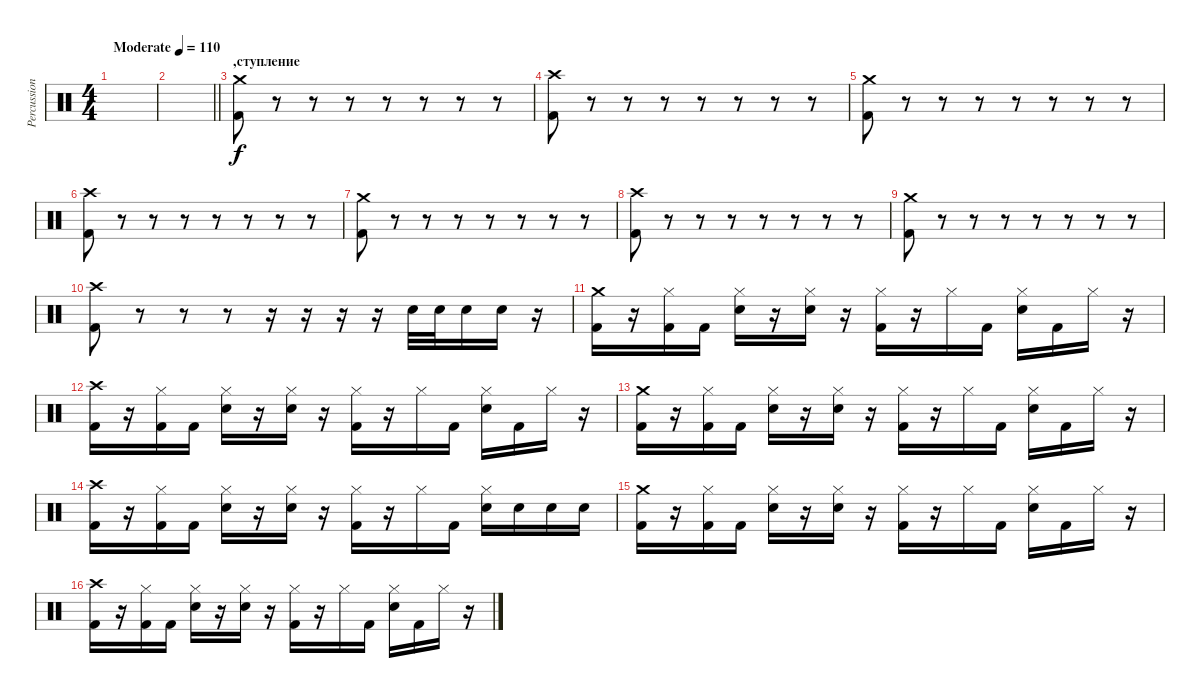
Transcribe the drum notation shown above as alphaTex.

\track ("Percussion" "Percussion") {instrument percussion}
\staff {score}
\articulation defaults
\ts (4 4)
\tempo (110 "Moderate")
\clef neutral
\ks c
|
\barLineRight lightlight
|
\section ("" "‚ступление")
("Crash medium (hit)" "Kick (hit) 2").8 r.8 r.8 r.8 r.8 r.8 r.8 r.8 |
("Crash high (hit)" "Kick (hit) 2").8 r.8 r.8 r.8 r.8 r.8 r.8 r.8 |
("Crash medium (hit)" "Kick (hit) 2").8 r.8 r.8 r.8 r.8 r.8 r.8 r.8 |
("Crash high (hit)" "Kick (hit) 2").8 r.8 r.8 r.8 r.8 r.8 r.8 r.8 |
("Crash medium (hit)" "Kick (hit) 2").8 r.8 r.8 r.8 r.8 r.8 r.8 r.8 |
("Crash high (hit)" "Kick (hit) 2").8 r.8 r.8 r.8 r.8 r.8 r.8 r.8 |
("Crash medium (hit)" "Kick (hit) 2").8 r.8 r.8 r.8 r.8 r.8 r.8 r.8 |
("Crash high (hit)" "Kick (hit) 2").8 r.8 r.8 r.8 r.16 r.16 r.16 r.16 "Electric Snare (hit)".32 "Electric Snare (hit)".32 "Electric Snare (hit)".16 "Electric Snare (hit)".16 r.16 |
("Crash medium (hit)" "Kick (hit) 2").16 r.16 ("Hi-Hat (closed)" "Kick (hit) 2").16 "Kick (hit) 2".16 ("Hi-Hat (closed)" "Electric Snare (hit)").16 r.16 ("Hi-Hat (closed)" "Electric Snare (hit)").16 r.16 ("Hi-Hat (closed)" "Kick (hit) 2").16 r.16 "Hi-Hat (closed)".16 "Kick (hit) 2".16 ("Hi-Hat (closed)" "Electric Snare (hit)").16 "Kick (hit) 2".16 "Hi-Hat (closed)".16 r.16 |
("Crash high (hit)" "Kick (hit) 2").16 r.16 ("Hi-Hat (closed)" "Kick (hit) 2").16 "Kick (hit) 2".16 ("Hi-Hat (closed)" "Electric Snare (hit)").16 r.16 ("Hi-Hat (closed)" "Electric Snare (hit)").16 r.16 ("Hi-Hat (closed)" "Kick (hit) 2").16 r.16 "Hi-Hat (closed)".16 "Kick (hit) 2".16 ("Hi-Hat (closed)" "Electric Snare (hit)").16 "Kick (hit) 2".16 "Hi-Hat (closed)".16 r.16 |
("Crash medium (hit)" "Kick (hit) 2").16 r.16 ("Hi-Hat (closed)" "Kick (hit) 2").16 "Kick (hit) 2".16 ("Hi-Hat (closed)" "Electric Snare (hit)").16 r.16 ("Hi-Hat (closed)" "Electric Snare (hit)").16 r.16 ("Hi-Hat (closed)" "Kick (hit) 2").16 r.16 "Hi-Hat (closed)".16 "Kick (hit) 2".16 ("Hi-Hat (closed)" "Electric Snare (hit)").16 "Kick (hit) 2".16 "Hi-Hat (closed)".16 r.16 |
("Crash high (hit)" "Kick (hit) 2").16 r.16 ("Hi-Hat (closed)" "Kick (hit) 2").16 "Kick (hit) 2".16 ("Hi-Hat (closed)" "Electric Snare (hit)").16 r.16 ("Hi-Hat (closed)" "Electric Snare (hit)").16 r.16 ("Hi-Hat (closed)" "Kick (hit) 2").16 r.16 "Hi-Hat (closed)".16 "Kick (hit) 2".16 ("Hi-Hat (closed)" "Electric Snare (hit)").16 "Electric Snare (hit)".16 "Electric Snare (hit)".16 "Electric Snare (hit)".16 |
("Crash medium (hit)" "Kick (hit) 2").16 r.16 ("Hi-Hat (closed)" "Kick (hit) 2").16 "Kick (hit) 2".16 ("Hi-Hat (closed)" "Electric Snare (hit)").16 r.16 ("Hi-Hat (closed)" "Electric Snare (hit)").16 r.16 ("Hi-Hat (closed)" "Kick (hit) 2").16 r.16 "Hi-Hat (closed)".16 "Kick (hit) 2".16 ("Hi-Hat (closed)" "Electric Snare (hit)").16 "Kick (hit) 2".16 "Hi-Hat (closed)".16 r.16 |
("Crash high (hit)" "Kick (hit) 2").16 r.16 ("Hi-Hat (closed)" "Kick (hit) 2").16 "Kick (hit) 2".16 ("Hi-Hat (closed)" "Electric Snare (hit)").16 r.16 ("Hi-Hat (closed)" "Electric Snare (hit)").16 r.16 ("Hi-Hat (closed)" "Kick (hit) 2").16 r.16 "Hi-Hat (closed)".16 "Kick (hit) 2".16 ("Hi-Hat (closed)" "Electric Snare (hit)").16 "Kick (hit) 2".16 "Hi-Hat (closed)".16 r.16
